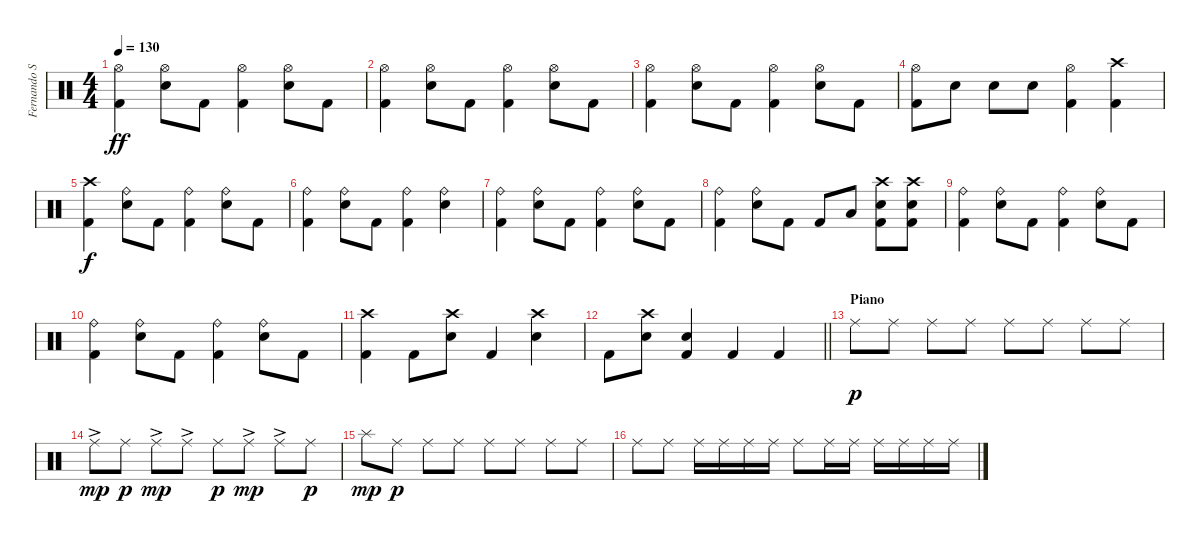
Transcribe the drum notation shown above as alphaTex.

\track ("Fernando Scarcella" "Fernando S") {instrument percussion}
\staff {score}
\articulation defaults
\ts (4 4)
\tempo 130
\clef neutral
\ks c
("Hi-Hat (open)" "Kick (hit) 2").4{dy ff} ("Hi-Hat (open)" "Snare (hit) 2").8 "Kick (hit) 2".8 ("Hi-Hat (open)" "Kick (hit) 2").4 ("Hi-Hat (open)" "Snare (hit) 2").8 "Kick (hit) 2".8 |
("Hi-Hat (open)" "Kick (hit) 2").4 ("Hi-Hat (open)" "Snare (hit) 2").8 "Kick (hit) 2".8 ("Hi-Hat (open)" "Kick (hit) 2").4 ("Hi-Hat (open)" "Snare (hit) 2").8 "Kick (hit) 2".8 |
("Hi-Hat (open)" "Kick (hit) 2").4 ("Hi-Hat (open)" "Snare (hit) 2").8 "Kick (hit) 2".8 ("Hi-Hat (open)" "Kick (hit) 2").4 ("Hi-Hat (open)" "Snare (hit) 2").8 "Kick (hit) 2".8 |
("Hi-Hat (open)" "Kick (hit) 2").8 "Snare (hit) 2".8 "Snare (hit) 2".8 "Snare (hit) 2".8 ("Hi-Hat (open)" "Kick (hit) 2").4 ("Crash high (hit)" "Kick (hit) 2").4 |
("Crash high (hit)" "Kick (hit) 2").4{dy f} ("Ride (bell)" "Snare (hit) 2").8 "Kick (hit) 2".8 ("Ride (bell)" "Kick (hit) 2").4 ("Ride (bell)" "Snare (hit) 2").8 "Kick (hit) 2".8 |
("Ride (bell)" "Kick (hit) 2").4 ("Ride (bell)" "Snare (hit) 2").8 "Kick (hit) 2".8 ("Ride (bell)" "Kick (hit) 2").4 ("Ride (bell)" "Snare (hit) 2").4 |
("Ride (bell)" "Kick (hit) 2").4 ("Ride (bell)" "Snare (hit) 2").8 "Kick (hit) 2".8 ("Ride (bell)" "Kick (hit) 2").4 ("Ride (bell)" "Snare (hit) 2").8 "Kick (hit) 2".8 |
("Ride (bell)" "Kick (hit) 2").4 ("Ride (bell)" "Snare (hit) 2").8 "Kick (hit) 2".8 "Kick (hit) 2".8 "Low Floor Tom (hit)".8 ("Crash high (hit)" "Snare (hit) 2" "Kick (hit) 2").8 ("Crash high (hit)" "Snare (hit) 2" "Kick (hit) 2").8 |
("Ride (bell)" "Kick (hit) 2").4 ("Ride (bell)" "Snare (hit) 2").8 "Kick (hit) 2".8 ("Ride (bell)" "Kick (hit) 2").4 ("Ride (bell)" "Snare (hit) 2").8 "Kick (hit) 2".8 |
("Ride (bell)" "Kick (hit) 2").4 ("Ride (bell)" "Snare (hit) 2").8 "Kick (hit) 2".8 ("Ride (bell)" "Kick (hit) 2").4 ("Ride (bell)" "Snare (hit) 2").8 "Kick (hit) 2".8 |
("Crash high (hit)" "Kick (hit) 2").4 "Kick (hit) 2".8 ("Crash high (hit)" "Snare (hit) 2").8 "Kick (hit) 2".4 ("Crash high (hit)" "Snare (hit) 2").4 |
\barLineRight lightlight "Kick (hit) 2".8
("Crash high (hit)" "Snare (hit) 2").8 ("Snare (hit) 2" "Kick (hit) 2").4 "Kick (hit) 2".4 "Kick (hit) 2".4 |
\section ("" "Piano")
"Ride (middle)".8{dy p} "Ride (middle)".8 "Ride (middle)".8 "Ride (middle)".8 "Ride (middle)".8 "Ride (middle)".8 "Ride (middle)".8 "Ride (middle)".8 |
"Ride (middle)"{ac}.8{dy mp} "Ride (middle)".8{dy p} "Ride (middle)"{ac}.8{dy mp} "Ride (middle)"{ac}.8 "Ride (middle)".8{dy p} "Ride (middle)"{ac}.8{dy mp} "Ride (middle)"{ac}.8 "Ride (middle)".8{dy p} |
"Splash (hit)".8{dy mp} "Ride (middle)".8{dy p} "Ride (middle)".8 "Ride (middle)".8 "Ride (middle)".8 "Ride (middle)".8 "Ride (middle)".8 "Ride (middle)".8 |
"Ride (middle)".8 "Ride (middle)".8 "Ride (middle)".16 "Ride (middle)".16 "Ride (middle)".16 "Ride (middle)".16 "Ride (middle)".8 "Ride (middle)".16 "Ride (middle)".16 "Ride (middle)".16 "Ride (middle)".16 "Ride (middle)".16 "Ride (middle)".16
